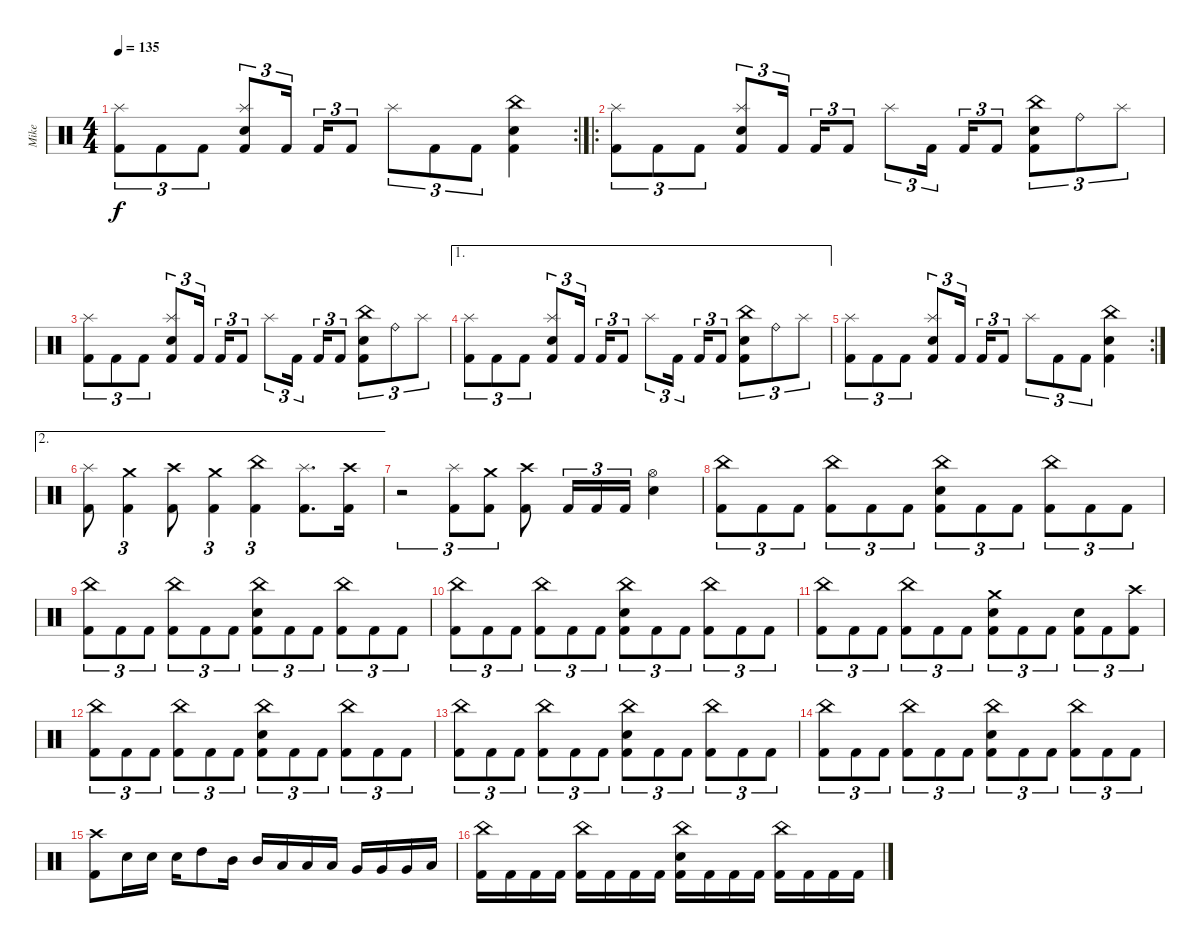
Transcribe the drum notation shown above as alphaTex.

\track ("Mike" "Mike") {instrument percussion}
\staff {score}
\articulation defaults
\rc 2
\ts (4 4)
\tempo 135
\clef neutral
\ks c
("Kick (hit) 2" "Splash (hit)").8{tu (3 2) dy f} "Kick (hit) 2".8{tu (3 2)} "Kick (hit) 2".8{tu (3 2)} ("Kick (hit) 2" "Electric Snare (hit)" "Splash (hit)").8{tu (3 2)} "Kick (hit) 2".16{tu (3 2) beam splitsecondary} "Kick (hit) 2".16{tu (3 2)} "Kick (hit) 2".8{tu (3 2)} "Splash (hit)".8{tu (3 2)} "Kick (hit) 2".8{tu (3 2)} "Kick (hit) 2".8{tu (3 2)} ("Kick (hit) 2" "Electric Snare (hit)" "China (hit)").4 |
\ro
("Kick (hit) 2" "Splash (hit)").8{tu (3 2)} "Kick (hit) 2".8{tu (3 2)} "Kick (hit) 2".8{tu (3 2)} ("Kick (hit) 2" "Electric Snare (hit)" "Splash (hit)").8{tu (3 2)} "Kick (hit) 2".16{tu (3 2) beam splitsecondary} "Kick (hit) 2".16{tu (3 2)} "Kick (hit) 2".8{tu (3 2)} "Splash (hit)".8{tu (3 2)} "Kick (hit) 2".16{tu (3 2) beam splitsecondary} "Kick (hit) 2".16{tu (3 2)} "Kick (hit) 2".8{tu (3 2)} ("Kick (hit) 2" "Electric Snare (hit)" "China (hit)").8{tu (3 2)} "Ride (bell)".8{tu (3 2)} "Splash (hit)".8{tu (3 2)} |
("Kick (hit) 2" "Splash (hit)").8{tu (3 2)} "Kick (hit) 2".8{tu (3 2)} "Kick (hit) 2".8{tu (3 2)} ("Kick (hit) 2" "Electric Snare (hit)" "Splash (hit)").8{tu (3 2)} "Kick (hit) 2".16{tu (3 2) beam splitsecondary} "Kick (hit) 2".16{tu (3 2)} "Kick (hit) 2".8{tu (3 2)} "Splash (hit)".8{tu (3 2)} "Kick (hit) 2".16{tu (3 2) beam splitsecondary} "Kick (hit) 2".16{tu (3 2)} "Kick (hit) 2".8{tu (3 2)} ("Kick (hit) 2" "Electric Snare (hit)" "China (hit)").8{tu (3 2)} "Ride (bell)".8{tu (3 2)} "Splash (hit)".8{tu (3 2)} |
\ae 1
("Kick (hit) 2" "Splash (hit)").8{tu (3 2)} "Kick (hit) 2".8{tu (3 2)} "Kick (hit) 2".8{tu (3 2)} ("Kick (hit) 2" "Electric Snare (hit)" "Splash (hit)").8{tu (3 2)} "Kick (hit) 2".16{tu (3 2) beam splitsecondary} "Kick (hit) 2".16{tu (3 2)} "Kick (hit) 2".8{tu (3 2)} "Splash (hit)".8{tu (3 2)} "Kick (hit) 2".16{tu (3 2) beam splitsecondary} "Kick (hit) 2".16{tu (3 2)} "Kick (hit) 2".8{tu (3 2)} ("Kick (hit) 2" "Electric Snare (hit)" "China (hit)").8{tu (3 2)} "Ride (bell)".8{tu (3 2)} "Splash (hit)".8{tu (3 2)} |
\rc 2
("Kick (hit) 2" "Splash (hit)").8{tu (3 2)} "Kick (hit) 2".8{tu (3 2)} "Kick (hit) 2".8{tu (3 2)} ("Kick (hit) 2" "Electric Snare (hit)" "Splash (hit)").8{tu (3 2)} "Kick (hit) 2".16{tu (3 2) beam splitsecondary} "Kick (hit) 2".16{tu (3 2)} "Kick (hit) 2".8{tu (3 2)} "Splash (hit)".8{tu (3 2)} "Kick (hit) 2".8{tu (3 2)} "Kick (hit) 2".8{tu (3 2)} ("Kick (hit) 2" "Electric Snare (hit)" "China (hit)").4 |
\ae 2
("Kick (hit) 2" "Splash (hit)").8 ("Kick (hit) 2" "Crash medium (hit)").4{tu (3 2)} ("Kick (hit) 2" "Crash high (hit)").8 ("Kick (hit) 2" "Crash medium (hit)").4{tu (3 2)} ("Kick (hit) 2" "China (hit)").4{tu (3 2)} ("Kick (hit) 2" "Splash (hit)").8{d} ("Kick (hit) 2" "Crash high (hit)").16 |
r.2{tu (3 2)} ("Kick (hit) 2" "Splash (hit)").8{tu (3 2)} ("Kick (hit) 2" "Crash medium (hit)").8{tu (3 2)} ("Kick (hit) 2" "Crash high (hit)").8 "Kick (hit) 2".16{tu (3 2)} "Kick (hit) 2".16{tu (3 2)} "Kick (hit) 2".16{tu (3 2)} ("Electric Snare (hit)" "Hi-Hat (open)").4 |
("Kick (hit) 2" "China (hit)").8{tu (3 2)} "Kick (hit) 2".8{tu (3 2)} "Kick (hit) 2".8{tu (3 2)} ("Kick (hit) 2" "China (hit)").8{tu (3 2)} "Kick (hit) 2".8{tu (3 2)} "Kick (hit) 2".8{tu (3 2)} ("Kick (hit) 2" "Electric Snare (hit)" "China (hit)").8{tu (3 2)} "Kick (hit) 2".8{tu (3 2)} "Kick (hit) 2".8{tu (3 2)} ("Kick (hit) 2" "China (hit)").8{tu (3 2)} "Kick (hit) 2".8{tu (3 2)} "Kick (hit) 2".8{tu (3 2)} |
("Kick (hit) 2" "China (hit)").8{tu (3 2)} "Kick (hit) 2".8{tu (3 2)} "Kick (hit) 2".8{tu (3 2)} ("Kick (hit) 2" "China (hit)").8{tu (3 2)} "Kick (hit) 2".8{tu (3 2)} "Kick (hit) 2".8{tu (3 2)} ("Kick (hit) 2" "Electric Snare (hit)" "China (hit)").8{tu (3 2)} "Kick (hit) 2".8{tu (3 2)} "Kick (hit) 2".8{tu (3 2)} ("Kick (hit) 2" "China (hit)").8{tu (3 2)} "Kick (hit) 2".8{tu (3 2)} "Kick (hit) 2".8{tu (3 2)} |
("Kick (hit) 2" "China (hit)").8{tu (3 2)} "Kick (hit) 2".8{tu (3 2)} "Kick (hit) 2".8{tu (3 2)} ("Kick (hit) 2" "China (hit)").8{tu (3 2)} "Kick (hit) 2".8{tu (3 2)} "Kick (hit) 2".8{tu (3 2)} ("Kick (hit) 2" "Electric Snare (hit)" "China (hit)").8{tu (3 2)} "Kick (hit) 2".8{tu (3 2)} "Kick (hit) 2".8{tu (3 2)} ("Kick (hit) 2" "China (hit)").8{tu (3 2)} "Kick (hit) 2".8{tu (3 2)} "Kick (hit) 2".8{tu (3 2)} |
("Kick (hit) 2" "China (hit)").8{tu (3 2)} "Kick (hit) 2".8{tu (3 2)} "Kick (hit) 2".8{tu (3 2)} ("Kick (hit) 2" "China (hit)").8{tu (3 2)} "Kick (hit) 2".8{tu (3 2)} "Kick (hit) 2".8{tu (3 2)} ("Kick (hit) 2" "Electric Snare (hit)" "Crash medium (hit)").8{tu (3 2)} "Kick (hit) 2".8{tu (3 2)} "Kick (hit) 2".8{tu (3 2)} ("Kick (hit) 2" "Electric Snare (hit)").8{tu (3 2)} "Kick (hit) 2".8{tu (3 2)} ("Kick (hit) 2" "Crash high (hit)").8{tu (3 2)} |
("Kick (hit) 2" "China (hit)").8{tu (3 2)} "Kick (hit) 2".8{tu (3 2)} "Kick (hit) 2".8{tu (3 2)} ("Kick (hit) 2" "China (hit)").8{tu (3 2)} "Kick (hit) 2".8{tu (3 2)} "Kick (hit) 2".8{tu (3 2)} ("Kick (hit) 2" "Electric Snare (hit)" "China (hit)").8{tu (3 2)} "Kick (hit) 2".8{tu (3 2)} "Kick (hit) 2".8{tu (3 2)} ("Kick (hit) 2" "China (hit)").8{tu (3 2)} "Kick (hit) 2".8{tu (3 2)} "Kick (hit) 2".8{tu (3 2)} |
("Kick (hit) 2" "China (hit)").8{tu (3 2)} "Kick (hit) 2".8{tu (3 2)} "Kick (hit) 2".8{tu (3 2)} ("Kick (hit) 2" "China (hit)").8{tu (3 2)} "Kick (hit) 2".8{tu (3 2)} "Kick (hit) 2".8{tu (3 2)} ("Kick (hit) 2" "Electric Snare (hit)" "China (hit)").8{tu (3 2)} "Kick (hit) 2".8{tu (3 2)} "Kick (hit) 2".8{tu (3 2)} ("Kick (hit) 2" "China (hit)").8{tu (3 2)} "Kick (hit) 2".8{tu (3 2)} "Kick (hit) 2".8{tu (3 2)} |
("Kick (hit) 2" "China (hit)").8{tu (3 2)} "Kick (hit) 2".8{tu (3 2)} "Kick (hit) 2".8{tu (3 2)} ("Kick (hit) 2" "China (hit)").8{tu (3 2)} "Kick (hit) 2".8{tu (3 2)} "Kick (hit) 2".8{tu (3 2)} ("Kick (hit) 2" "Electric Snare (hit)" "China (hit)").8{tu (3 2)} "Kick (hit) 2".8{tu (3 2)} "Kick (hit) 2".8{tu (3 2)} ("Kick (hit) 2" "China (hit)").8{tu (3 2)} "Kick (hit) 2".8{tu (3 2)} "Kick (hit) 2".8{tu (3 2)} |
("Kick (hit) 2" "Crash high (hit)").8 "Electric Snare (hit)".16 "Electric Snare (hit)".16 "Electric Snare (hit)".16 "High Tom (hit)".8 "Mid Tom (hit)".16 "Mid Tom (hit)".16 "Low Tom (hit)".16 "Low Tom (hit)".16 "Low Tom (hit)".16 "Very Low Tom (hit)".16 "Very Low Tom (hit)".16 "Very Low Tom (hit)".16 "Low Floor Tom (hit)".16 |
("Kick (hit) 2" "China (hit)").16 "Kick (hit) 2".16 "Kick (hit) 2".16 "Kick (hit) 2".16 ("Kick (hit) 2" "China (hit)").16 "Kick (hit) 2".16 "Kick (hit) 2".16 "Kick (hit) 2".16 ("Kick (hit) 2" "Electric Snare (hit)" "China (hit)").16 "Kick (hit) 2".16 "Kick (hit) 2".16 "Kick (hit) 2".16 ("Kick (hit) 2" "China (hit)").16 "Kick (hit) 2".16 "Kick (hit) 2".16 "Kick (hit) 2".16
